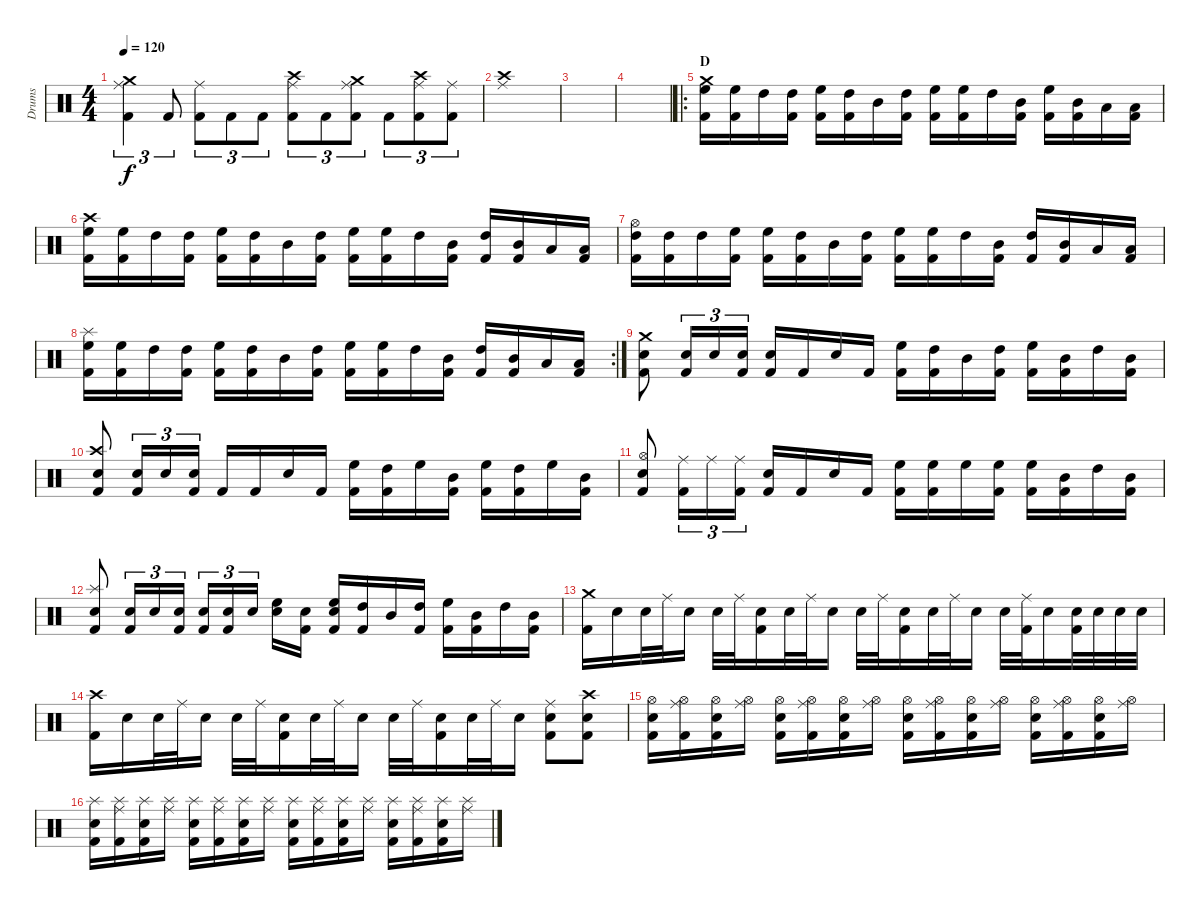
\track ("Drums" "Drums") {instrument percussion}
\staff {score}
\articulation defaults
\ts (4 4)
\tempo 120
\clef neutral
\ks c
("Crash medium (hit)" "Ride (middle)" "Kick (hit) 2").4{tu (3 2) dy f} "Kick (hit) 2".8{tu (3 2)} ("Ride (middle)" "Kick (hit) 2").8{tu (3 2)} "Kick (hit) 2".8{tu (3 2)} "Kick (hit) 2".8{tu (3 2)} ("Crash high (hit)" "Ride (middle)" "Kick (hit) 2").8{tu (3 2)} "Kick (hit) 2".8{tu (3 2)} ("Crash medium (hit)" "Ride (middle)" "Kick (hit) 2").8{tu (3 2)} "Kick (hit) 2".8{tu (3 2)} ("Crash high (hit)" "Ride (middle)" "Kick (hit) 2").8{tu (3 2)} ("Ride (middle)" "Kick (hit) 2").8{tu (3 2)} |
("Crash high (hit)" "Ride (middle)").1 |
|
|
\ro
\section ("" "D")
("Crash medium (hit)" "High Floor Tom (hit)" "Kick (hit) 2").16 ("High Floor Tom (hit)" "Kick (hit) 2").16 "High Tom (hit)".16 ("High Tom (hit)" "Kick (hit) 2").16 ("High Floor Tom (hit)" "Kick (hit) 2").16 ("High Tom (hit)" "Kick (hit) 2").16 "Mid Tom (hit)".16 ("High Tom (hit)" "Kick (hit) 2").16 ("High Floor Tom (hit)" "Kick (hit) 2").16 ("High Floor Tom (hit)" "Kick (hit) 2").16 "High Tom (hit)".16 ("Mid Tom (hit)" "Kick (hit) 2").16 ("High Floor Tom (hit)" "Kick (hit) 2").16 ("Mid Tom (hit)" "Kick (hit) 2").16 "Low Tom (hit)".16 ("Low Floor Tom (hit)" "Kick (hit) 2").16 |
("Crash high (hit)" "High Floor Tom (hit)" "Kick (hit) 2").16 ("High Floor Tom (hit)" "Kick (hit) 2").16 "High Tom (hit)".16 ("High Tom (hit)" "Kick (hit) 2").16 ("High Floor Tom (hit)" "Kick (hit) 2").16 ("High Tom (hit)" "Kick (hit) 2").16 "Mid Tom (hit)".16 ("High Tom (hit)" "Kick (hit) 2").16 ("High Floor Tom (hit)" "Kick (hit) 2").16 ("High Floor Tom (hit)" "Kick (hit) 2").16 "High Tom (hit)".16 ("Mid Tom (hit)" "Kick (hit) 2").16 ("High Tom (hit)" "Kick (hit) 2").16 ("Mid Tom (hit)" "Kick (hit) 2").16 "Low Tom (hit)".16 ("Low Floor Tom (hit)" "Kick (hit) 2").16 |
("Hi-Hat (open)" "High Tom (hit)" "Kick (hit) 2").16 ("High Tom (hit)" "Kick (hit) 2").16 "High Tom (hit)".16 ("High Floor Tom (hit)" "Kick (hit) 2").16 ("High Floor Tom (hit)" "Kick (hit) 2").16 ("High Tom (hit)" "Kick (hit) 2").16 "Mid Tom (hit)".16 ("High Tom (hit)" "Kick (hit) 2").16 ("High Floor Tom (hit)" "Kick (hit) 2").16 ("High Floor Tom (hit)" "Kick (hit) 2").16 "High Tom (hit)".16 ("Mid Tom (hit)" "Kick (hit) 2").16 ("High Tom (hit)" "Kick (hit) 2").16 ("Mid Tom (hit)" "Kick (hit) 2").16 "Low Tom (hit)".16 ("Low Floor Tom (hit)" "Kick (hit) 2").16 |
\rc 2
("Splash (hit)" "High Floor Tom (hit)" "Kick (hit) 2").16 ("High Floor Tom (hit)" "Kick (hit) 2").16 "High Tom (hit)".16 ("High Tom (hit)" "Kick (hit) 2").16 ("High Floor Tom (hit)" "Kick (hit) 2").16 ("High Tom (hit)" "Kick (hit) 2").16 "Mid Tom (hit)".16 ("High Tom (hit)" "Kick (hit) 2").16 ("High Floor Tom (hit)" "Kick (hit) 2").16 ("High Floor Tom (hit)" "Kick (hit) 2").16 "High Tom (hit)".16 ("Mid Tom (hit)" "Kick (hit) 2").16 ("High Tom (hit)" "Kick (hit) 2").16 ("Mid Tom (hit)" "Kick (hit) 2").16 "Low Tom (hit)".16 ("Low Floor Tom (hit)" "Kick (hit) 2").16 |
("Crash medium (hit)" "Electric Snare (hit)" "Kick (hit) 2").8 ("Electric Snare (hit)" "Kick (hit) 2").16{tu (3 2)} "Electric Snare (hit)".16{tu (3 2)} ("Electric Snare (hit)" "Kick (hit) 2").16{tu (3 2)} ("Electric Snare (hit)" "Kick (hit) 2").16 "Kick (hit) 2".16 "Electric Snare (hit)".16 "Kick (hit) 2".16 ("High Floor Tom (hit)" "Kick (hit) 2").16 ("High Tom (hit)" "Kick (hit) 2").16 "Mid Tom (hit)".16 ("High Tom (hit)" "Kick (hit) 2").16 ("High Floor Tom (hit)" "Kick (hit) 2").16 ("Mid Tom (hit)" "Kick (hit) 2").16 "High Tom (hit)".16 ("Mid Tom (hit)" "Kick (hit) 2").16 |
("Crash high (hit)" "Electric Snare (hit)" "Kick (hit) 2").8 ("Electric Snare (hit)" "Kick (hit) 2").16{tu (3 2)} "Snare (hit) 2".16{tu (3 2)} ("Electric Snare (hit)" "Kick (hit) 2").16{tu (3 2)} "Kick (hit) 2".16 "Kick (hit) 2".16 "Electric Snare (hit)".16 "Kick (hit) 2".16 ("High Floor Tom (hit)" "Kick (hit) 2").16 ("High Tom (hit)" "Kick (hit) 2").16 "High Floor Tom (hit)".16 ("Mid Tom (hit)" "Kick (hit) 2").16 ("High Floor Tom (hit)" "Kick (hit) 2").16 ("High Tom (hit)" "Kick (hit) 2").16 "High Floor Tom (hit)".16 ("Mid Tom (hit)" "Kick (hit) 2").16 |
("Hi-Hat (open)" "Electric Snare (hit)" "Kick (hit) 2").8 ("Ride (middle)" "Kick (hit) 2").16{tu (3 2)} "Ride (middle)".16{tu (3 2)} ("Ride (middle)" "Kick (hit) 2").16{tu (3 2)} ("Electric Snare (hit)" "Kick (hit) 2").16 "Kick (hit) 2".16 "Electric Snare (hit)".16 "Kick (hit) 2".16 ("High Floor Tom (hit)" "Kick (hit) 2").16 ("High Floor Tom (hit)" "Kick (hit) 2").16 "High Floor Tom (hit)".16 ("High Floor Tom (hit)" "Kick (hit) 2").16 ("High Floor Tom (hit)" "Kick (hit) 2").16 ("Mid Tom (hit)" "Kick (hit) 2").16 "High Tom (hit)".16 ("Mid Tom (hit)" "Kick (hit) 2").16 |
("Splash (hit)" "Electric Snare (hit)" "Kick (hit) 2").8 ("Electric Snare (hit)" "Kick (hit) 2").16{tu (3 2)} "Snare (hit) 2".16{tu (3 2)} ("Electric Snare (hit)" "Kick (hit) 2").16{tu (3 2)} ("Snare (hit) 2" "Kick (hit) 2").16{tu (3 2)} ("Snare (hit) 2" "Kick (hit) 2").16{tu (3 2)} "Electric Snare (hit)".16{tu (3 2)} ("High Floor Tom (hit)" "Snare (hit) 2").16 ("Electric Snare (hit)" "Kick (hit) 2").16 ("High Floor Tom (hit)" "Snare (hit) 2" "Kick (hit) 2").16 ("High Tom (hit)" "Kick (hit) 2").16 "Mid Tom (hit)".16 ("High Tom (hit)" "Kick (hit) 2").16 ("High Floor Tom (hit)" "Kick (hit) 2").16 ("Mid Tom (hit)" "Kick (hit) 2").16 "High Tom (hit)".16 ("Mid Tom (hit)" "Kick (hit) 2").16 |
("Crash medium (hit)" "Kick (hit) 2").16 "Electric Snare (hit)".16 "Electric Snare (hit)".32 "Ride (middle)".32 "Electric Snare (hit)".16 "Electric Snare (hit)".32 "Ride (middle)".32 ("Electric Snare (hit)" "Kick (hit) 2").16 "Electric Snare (hit)".32 "Ride (middle)".32 "Electric Snare (hit)".16 "Electric Snare (hit)".32 "Ride (middle)".32 ("Electric Snare (hit)" "Kick (hit) 2").16 "Electric Snare (hit)".32 "Ride (middle)".32 "Electric Snare (hit)".16 "Electric Snare (hit)".32 ("Ride (middle)" "Kick (hit) 2").32 "Electric Snare (hit)".16 ("Electric Snare (hit)" "Kick (hit) 2").32 "Electric Snare (hit)".32 "Electric Snare (hit)".32 "Electric Snare (hit)".32 |
("Crash high (hit)" "Kick (hit) 2").16 "Electric Snare (hit)".16 "Electric Snare (hit)".32 "Ride (middle)".32 "Electric Snare (hit)".16 "Electric Snare (hit)".32 "Ride (middle)".32 ("Electric Snare (hit)" "Kick (hit) 2").16 "Electric Snare (hit)".32 "Ride (middle)".32 "Electric Snare (hit)".16 "Electric Snare (hit)".32 "Ride (middle)".32 ("Electric Snare (hit)" "Kick (hit) 2").16 "Electric Snare (hit)".32 "Ride (middle)".32 "Electric Snare (hit)".16 ("Ride (middle)" "Electric Snare (hit)" "Kick (hit) 2").8 ("Crash high (hit)" "Electric Snare (hit)" "Kick (hit) 2").8 |
("Hi-Hat (open)" "Electric Snare (hit)" "Kick (hit) 2").16 ("Hi-Hat (open)" "Ride (middle)" "Kick (hit) 2").16 ("Hi-Hat (open)" "Electric Snare (hit)" "Kick (hit) 2").16 ("Hi-Hat (open)" "Ride (middle)").16 ("Hi-Hat (open)" "Electric Snare (hit)" "Kick (hit) 2").16 ("Hi-Hat (open)" "Ride (middle)" "Kick (hit) 2").16 ("Hi-Hat (open)" "Electric Snare (hit)" "Kick (hit) 2").16 ("Hi-Hat (open)" "Ride (middle)").16 ("Hi-Hat (open)" "Electric Snare (hit)" "Kick (hit) 2").16 ("Hi-Hat (open)" "Ride (middle)" "Kick (hit) 2").16 ("Hi-Hat (open)" "Electric Snare (hit)" "Kick (hit) 2").16 ("Hi-Hat (open)" "Ride (middle)").16 ("Hi-Hat (open)" "Electric Snare (hit)" "Kick (hit) 2").16 ("Hi-Hat (open)" "Ride (middle)" "Kick (hit) 2").16 ("Hi-Hat (open)" "Electric Snare (hit)" "Kick (hit) 2").16 ("Hi-Hat (open)" "Ride (middle)").16 |
("Splash (hit)" "Electric Snare (hit)" "Kick (hit) 2").16 ("Splash (hit)" "Ride (middle)" "Kick (hit) 2").16 ("Splash (hit)" "Electric Snare (hit)" "Kick (hit) 2").16 ("Splash (hit)" "Ride (middle)").16 ("Splash (hit)" "Electric Snare (hit)" "Kick (hit) 2").16 ("Splash (hit)" "Ride (middle)" "Kick (hit) 2").16 ("Splash (hit)" "Electric Snare (hit)" "Kick (hit) 2").16 ("Splash (hit)" "Ride (middle)").16 ("Splash (hit)" "Electric Snare (hit)" "Kick (hit) 2").16 ("Splash (hit)" "Ride (middle)" "Kick (hit) 2").16 ("Splash (hit)" "Electric Snare (hit)" "Kick (hit) 2").16 ("Splash (hit)" "Ride (middle)").16 ("Splash (hit)" "Electric Snare (hit)" "Kick (hit) 2").16 ("Splash (hit)" "Ride (middle)" "Kick (hit) 2").16 ("Splash (hit)" "Electric Snare (hit)" "Kick (hit) 2").16 ("Splash (hit)" "Ride (middle)").16
